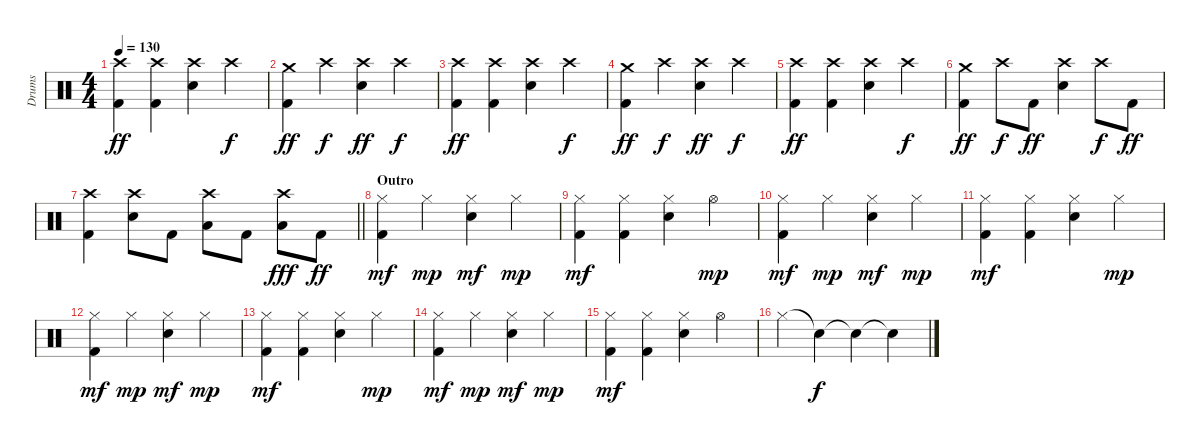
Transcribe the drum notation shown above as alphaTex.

\track ("Drums" "Drums") {instrument percussion}
\staff {score}
\articulation defaults
\ts (4 4)
\tempo 130
\clef neutral
\ks c
("Crash high (hit)" "Kick (hit) 2").4{dy ff} ("Crash high (hit)" "Kick (hit) 2").4 ("Crash high (hit)" "Snare (hit) 2").4 "Crash high (hit)".4{dy f} |
("Crash medium (hit)" "Kick (hit) 2").4{dy ff} "Crash high (hit)".4{dy f} ("Crash high (hit)" "Snare (hit) 2").4{dy ff} "Crash high (hit)".4{dy f} |
("Crash high (hit)" "Kick (hit) 2").4{dy ff} ("Crash high (hit)" "Kick (hit) 2").4 ("Crash high (hit)" "Snare (hit) 2").4 "Crash high (hit)".4{dy f} |
("Crash medium (hit)" "Kick (hit) 2").4{dy ff} "Crash high (hit)".4{dy f} ("Crash high (hit)" "Snare (hit) 2").4{dy ff} "Crash high (hit)".4{dy f} |
("Crash high (hit)" "Kick (hit) 2").4{dy ff} ("Crash high (hit)" "Kick (hit) 2").4 ("Crash high (hit)" "Snare (hit) 2").4 "Crash high (hit)".4{dy f} |
("Crash medium (hit)" "Kick (hit) 2").4{dy ff} "Crash high (hit)".8{dy f} "Kick (hit) 2".8{dy ff} ("Crash high (hit)" "Snare (hit) 2").4 "Crash high (hit)".8{dy f} "Kick (hit) 2".8{dy ff} |
\barLineRight lightlight
("Crash high (hit)" "Kick (hit) 2").4 ("Crash high (hit)" "Snare (hit) 2").8 "Kick (hit) 2".8 ("Crash high (hit)" "Low Tom (hit)").8 "Kick (hit) 2".8 ("Crash high (hit)" "Low Tom (hit)").8{dy fff} "Kick (hit) 2".8{dy ff} |
\section ("" "Outro")
("Hi-Hat (closed)" "Kick (hit) 2").4{dy mf} "Hi-Hat (closed)".4{dy mp} ("Hi-Hat (closed)" "Snare (hit) 2").4{dy mf} "Hi-Hat (closed)".4{dy mp} |
("Hi-Hat (closed)" "Kick (hit) 2").4{dy mf} ("Hi-Hat (closed)" "Kick (hit) 2").4 ("Hi-Hat (closed)" "Snare (hit) 2").4 "Hi-Hat (open)".4{dy mp} |
("Hi-Hat (closed)" "Kick (hit) 2").4{dy mf} "Hi-Hat (closed)".4{dy mp} ("Hi-Hat (closed)" "Snare (hit) 2").4{dy mf} "Hi-Hat (closed)".4{dy mp} |
("Hi-Hat (closed)" "Kick (hit) 2").4{dy mf} ("Hi-Hat (closed)" "Kick (hit) 2").4 ("Hi-Hat (closed)" "Snare (hit) 2").4 "Hi-Hat (closed)".4{dy mp} |
("Hi-Hat (closed)" "Kick (hit) 2").4{dy mf} "Hi-Hat (closed)".4{dy mp} ("Hi-Hat (closed)" "Snare (hit) 2").4{dy mf} "Hi-Hat (closed)".4{dy mp} |
("Hi-Hat (closed)" "Kick (hit) 2").4{dy mf} ("Hi-Hat (closed)" "Kick (hit) 2").4 ("Hi-Hat (closed)" "Snare (hit) 2").4 "Hi-Hat (closed)".4{dy mp} |
("Hi-Hat (closed)" "Kick (hit) 2").4{dy mf} "Hi-Hat (closed)".4{dy mp} ("Hi-Hat (closed)" "Snare (hit) 2").4{dy mf} "Hi-Hat (closed)".4{dy mp} |
("Hi-Hat (closed)" "Kick (hit) 2").4{dy mf} ("Hi-Hat (closed)" "Kick (hit) 2").4 ("Hi-Hat (closed)" "Snare (hit) 2").4 "Hi-Hat (open)".4 |
"Hi-Hat (closed)".4 "Snare (hit)"{t}.4{dy f} "Snare (hit)"{t}.4 "Snare (hit)"{t}.4
